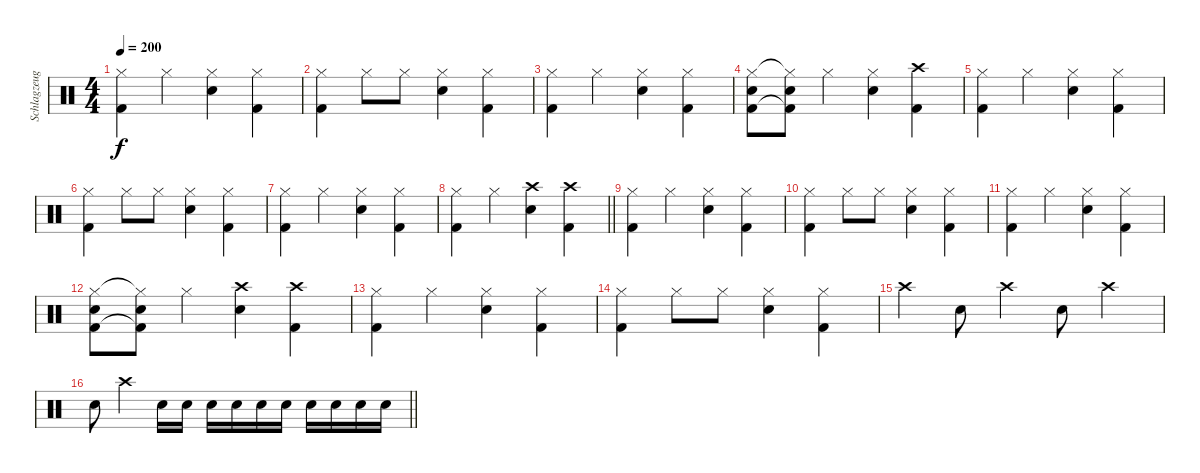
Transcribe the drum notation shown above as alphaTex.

\track ("Schlagzeug" "Schlagzeug") {instrument percussion}
\staff {score}
\articulation defaults
\ts (4 4)
\tempo 200
\clef neutral
\ks c
("Hi-Hat (closed)" "Kick (hit) 2").4{dy f} "Hi-Hat (closed)".4 ("Hi-Hat (closed)" "Snare (hit) 2").4 ("Hi-Hat (closed)" "Kick (hit) 2").4 |
("Hi-Hat (closed)" "Kick (hit) 2").4 "Hi-Hat (closed)".8 "Hi-Hat (closed)".8 ("Hi-Hat (closed)" "Snare (hit) 2").4 ("Hi-Hat (closed)" "Kick (hit) 2").4 |
("Hi-Hat (closed)" "Kick (hit) 2").4 "Hi-Hat (closed)".4 ("Hi-Hat (closed)" "Snare (hit) 2").4 ("Hi-Hat (closed)" "Kick (hit) 2").4 |
("Hi-Hat (closed)" "Snare (hit) 2" "Kick (hit) 2").8 ("Hi-Hat (closed)"{t} "Snare (hit) 2" "Kick (hit) 2"{t}).8 "Hi-Hat (closed)".4 ("Hi-Hat (closed)" "Snare (hit) 2").4 ("Crash high (hit)" "Kick (hit) 2").4 |
("Hi-Hat (closed)" "Kick (hit) 2").4 "Hi-Hat (closed)".4 ("Hi-Hat (closed)" "Snare (hit) 2").4 ("Hi-Hat (closed)" "Kick (hit) 2").4 |
("Hi-Hat (closed)" "Kick (hit) 2").4 "Hi-Hat (closed)".8 "Hi-Hat (closed)".8 ("Hi-Hat (closed)" "Snare (hit) 2").4 ("Hi-Hat (closed)" "Kick (hit) 2").4 |
("Hi-Hat (closed)" "Kick (hit) 2").4 "Hi-Hat (closed)".4 ("Hi-Hat (closed)" "Snare (hit) 2").4 ("Hi-Hat (closed)" "Kick (hit) 2").4 |
\barLineRight lightlight
("Hi-Hat (closed)" "Kick (hit) 2").4 "Hi-Hat (closed)".4 ("Crash high (hit)" "Snare (hit) 2").4 ("Crash high (hit)" "Kick (hit) 2").4 |
("Hi-Hat (closed)" "Kick (hit) 2").4 "Hi-Hat (closed)".4 ("Hi-Hat (closed)" "Snare (hit) 2").4 ("Hi-Hat (closed)" "Kick (hit) 2").4 |
("Hi-Hat (closed)" "Kick (hit) 2").4 "Hi-Hat (closed)".8 "Hi-Hat (closed)".8 ("Hi-Hat (closed)" "Snare (hit) 2").4 ("Hi-Hat (closed)" "Kick (hit) 2").4 |
("Hi-Hat (closed)" "Kick (hit) 2").4 "Hi-Hat (closed)".4 ("Hi-Hat (closed)" "Snare (hit) 2").4 ("Hi-Hat (closed)" "Kick (hit) 2").4 |
("Hi-Hat (closed)" "Snare (hit) 2" "Kick (hit) 2").8 ("Hi-Hat (closed)"{t} "Snare (hit) 2" "Kick (hit) 2"{t}).8 "Hi-Hat (closed)".4 ("Crash high (hit)" "Snare (hit) 2").4 ("Crash high (hit)" "Kick (hit) 2").4 |
("Hi-Hat (closed)" "Kick (hit) 2").4 "Hi-Hat (closed)".4 ("Hi-Hat (closed)" "Snare (hit) 2").4 ("Hi-Hat (closed)" "Kick (hit) 2").4 |
("Hi-Hat (closed)" "Kick (hit) 2").4 "Hi-Hat (closed)".8 "Hi-Hat (closed)".8 ("Hi-Hat (closed)" "Snare (hit) 2").4 ("Hi-Hat (closed)" "Kick (hit) 2").4 |
"Crash high (hit)".4 "Snare (hit) 2".8 "Crash high (hit)".4 "Snare (hit) 2".8 "Crash high (hit)".4 |
\barLineRight lightlight "Snare (hit) 2".8 "Crash high (hit)".4 "Snare (hit) 2".16 "Snare (hit) 2".16 "Snare (hit) 2".16 "Snare (hit) 2".16 "Snare (hit) 2".16 "Snare (hit) 2".16 "Snare (hit) 2".16 "Snare (hit) 2".16 "Snare (hit) 2".16 "Snare (hit) 2".16
